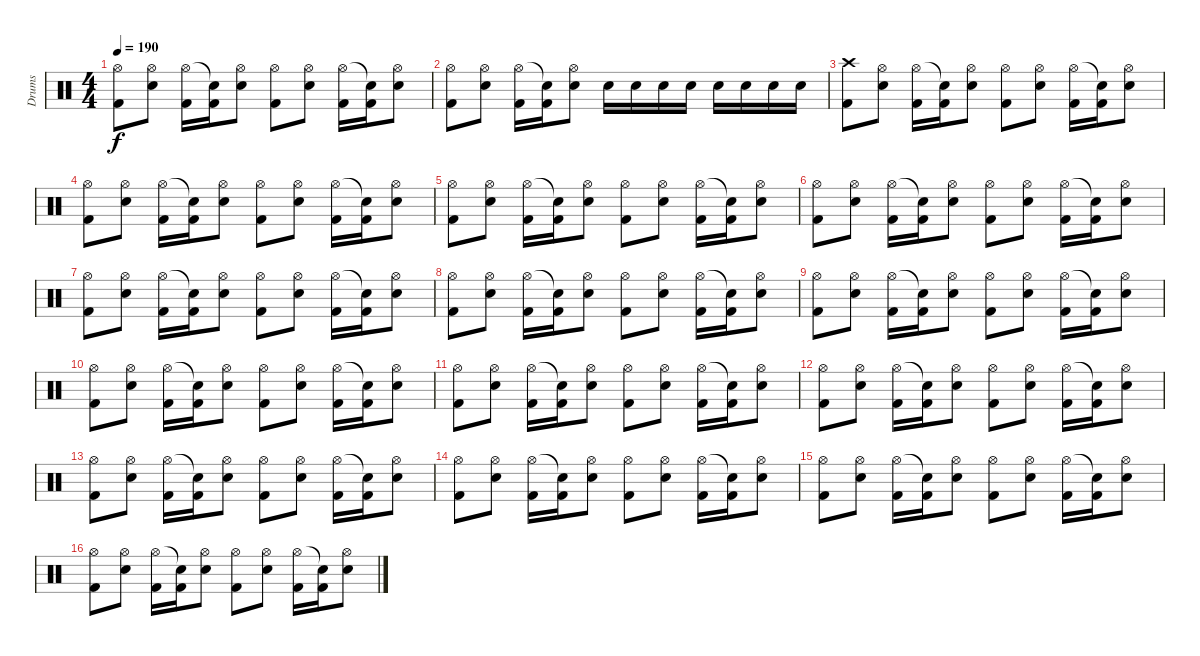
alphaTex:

\track ("Drums" "Drums") {instrument percussion}
\staff {score}
\articulation defaults
\ts (4 4)
\tempo 190
\clef neutral
\ks c
("Hi-Hat (open)" "Kick (hit) 2").8{dy f} ("Hi-Hat (open)" "Snare (hit) 2").8 ("Hi-Hat (open)" "Kick (hit) 2").16 ("Snare (hit)"{t} "Kick (hit) 2").16 ("Hi-Hat (open)" "Snare (hit) 2").8 ("Hi-Hat (open)" "Kick (hit) 2").8 ("Hi-Hat (open)" "Snare (hit) 2").8 ("Hi-Hat (open)" "Kick (hit) 2").16 ("Snare (hit)"{t} "Kick (hit) 2").16 ("Hi-Hat (open)" "Snare (hit) 2").8 |
("Hi-Hat (open)" "Kick (hit) 2").8 ("Hi-Hat (open)" "Snare (hit) 2").8 ("Hi-Hat (open)" "Kick (hit) 2").16 ("Snare (hit)"{t} "Kick (hit) 2").16 ("Hi-Hat (open)" "Snare (hit) 2").8 "Snare (hit) 2".16 "Snare (hit) 2".16 "Snare (hit) 2".16 "Snare (hit) 2".16 "Snare (hit) 2".16 "Snare (hit) 2".16 "Snare (hit) 2".16 "Snare (hit) 2".16 |
("Crash high (hit)" "Kick (hit) 2").8 ("Hi-Hat (open)" "Snare (hit) 2").8 ("Hi-Hat (open)" "Kick (hit) 2").16 ("Snare (hit)"{t} "Kick (hit) 2").16 ("Hi-Hat (open)" "Snare (hit) 2").8 ("Hi-Hat (open)" "Kick (hit) 2").8 ("Hi-Hat (open)" "Snare (hit) 2").8 ("Hi-Hat (open)" "Kick (hit) 2").16 ("Snare (hit)"{t} "Kick (hit) 2").16 ("Hi-Hat (open)" "Snare (hit) 2").8 |
("Hi-Hat (open)" "Kick (hit) 2").8 ("Hi-Hat (open)" "Snare (hit) 2").8 ("Hi-Hat (open)" "Kick (hit) 2").16 ("Snare (hit)"{t} "Kick (hit) 2").16 ("Hi-Hat (open)" "Snare (hit) 2").8 ("Hi-Hat (open)" "Kick (hit) 2").8 ("Hi-Hat (open)" "Snare (hit) 2").8 ("Hi-Hat (open)" "Kick (hit) 2").16 ("Snare (hit)"{t} "Kick (hit) 2").16 ("Hi-Hat (open)" "Snare (hit) 2").8 |
("Hi-Hat (open)" "Kick (hit) 2").8 ("Hi-Hat (open)" "Snare (hit) 2").8 ("Hi-Hat (open)" "Kick (hit) 2").16 ("Snare (hit)"{t} "Kick (hit) 2").16 ("Hi-Hat (open)" "Snare (hit) 2").8 ("Hi-Hat (open)" "Kick (hit) 2").8 ("Hi-Hat (open)" "Snare (hit) 2").8 ("Hi-Hat (open)" "Kick (hit) 2").16 ("Snare (hit)"{t} "Kick (hit) 2").16 ("Hi-Hat (open)" "Snare (hit) 2").8 |
("Hi-Hat (open)" "Kick (hit) 2").8 ("Hi-Hat (open)" "Snare (hit) 2").8 ("Hi-Hat (open)" "Kick (hit) 2").16 ("Snare (hit)"{t} "Kick (hit) 2").16 ("Hi-Hat (open)" "Snare (hit) 2").8 ("Hi-Hat (open)" "Kick (hit) 2").8 ("Hi-Hat (open)" "Snare (hit) 2").8 ("Hi-Hat (open)" "Kick (hit) 2").16 ("Snare (hit)"{t} "Kick (hit) 2").16 ("Hi-Hat (open)" "Snare (hit) 2").8 |
("Hi-Hat (open)" "Kick (hit) 2").8 ("Hi-Hat (open)" "Snare (hit) 2").8 ("Hi-Hat (open)" "Kick (hit) 2").16 ("Snare (hit)"{t} "Kick (hit) 2").16 ("Hi-Hat (open)" "Snare (hit) 2").8 ("Hi-Hat (open)" "Kick (hit) 2").8 ("Hi-Hat (open)" "Snare (hit) 2").8 ("Hi-Hat (open)" "Kick (hit) 2").16 ("Snare (hit)"{t} "Kick (hit) 2").16 ("Hi-Hat (open)" "Snare (hit) 2").8 |
("Hi-Hat (open)" "Kick (hit) 2").8 ("Hi-Hat (open)" "Snare (hit) 2").8 ("Hi-Hat (open)" "Kick (hit) 2").16 ("Snare (hit)"{t} "Kick (hit) 2").16 ("Hi-Hat (open)" "Snare (hit) 2").8 ("Hi-Hat (open)" "Kick (hit) 2").8 ("Hi-Hat (open)" "Snare (hit) 2").8 ("Hi-Hat (open)" "Kick (hit) 2").16 ("Snare (hit)"{t} "Kick (hit) 2").16 ("Hi-Hat (open)" "Snare (hit) 2").8 |
("Hi-Hat (open)" "Kick (hit) 2").8 ("Hi-Hat (open)" "Snare (hit) 2").8 ("Hi-Hat (open)" "Kick (hit) 2").16 ("Snare (hit)"{t} "Kick (hit) 2").16 ("Hi-Hat (open)" "Snare (hit) 2").8 ("Hi-Hat (open)" "Kick (hit) 2").8 ("Hi-Hat (open)" "Snare (hit) 2").8 ("Hi-Hat (open)" "Kick (hit) 2").16 ("Snare (hit)"{t} "Kick (hit) 2").16 ("Hi-Hat (open)" "Snare (hit) 2").8 |
("Hi-Hat (open)" "Kick (hit) 2").8 ("Hi-Hat (open)" "Snare (hit) 2").8 ("Hi-Hat (open)" "Kick (hit) 2").16 ("Snare (hit)"{t} "Kick (hit) 2").16 ("Hi-Hat (open)" "Snare (hit) 2").8 ("Hi-Hat (open)" "Kick (hit) 2").8 ("Hi-Hat (open)" "Snare (hit) 2").8 ("Hi-Hat (open)" "Kick (hit) 2").16 ("Snare (hit)"{t} "Kick (hit) 2").16 ("Hi-Hat (open)" "Snare (hit) 2").8 |
("Hi-Hat (open)" "Kick (hit) 2").8 ("Hi-Hat (open)" "Snare (hit) 2").8 ("Hi-Hat (open)" "Kick (hit) 2").16 ("Snare (hit)"{t} "Kick (hit) 2").16 ("Hi-Hat (open)" "Snare (hit) 2").8 ("Hi-Hat (open)" "Kick (hit) 2").8 ("Hi-Hat (open)" "Snare (hit) 2").8 ("Hi-Hat (open)" "Kick (hit) 2").16 ("Snare (hit)"{t} "Kick (hit) 2").16 ("Hi-Hat (open)" "Snare (hit) 2").8 |
("Hi-Hat (open)" "Kick (hit) 2").8 ("Hi-Hat (open)" "Snare (hit) 2").8 ("Hi-Hat (open)" "Kick (hit) 2").16 ("Snare (hit)"{t} "Kick (hit) 2").16 ("Hi-Hat (open)" "Snare (hit) 2").8 ("Hi-Hat (open)" "Kick (hit) 2").8 ("Hi-Hat (open)" "Snare (hit) 2").8 ("Hi-Hat (open)" "Kick (hit) 2").16 ("Snare (hit)"{t} "Kick (hit) 2").16 ("Hi-Hat (open)" "Snare (hit) 2").8 |
("Hi-Hat (open)" "Kick (hit) 2").8 ("Hi-Hat (open)" "Snare (hit) 2").8 ("Hi-Hat (open)" "Kick (hit) 2").16 ("Snare (hit)"{t} "Kick (hit) 2").16 ("Hi-Hat (open)" "Snare (hit) 2").8 ("Hi-Hat (open)" "Kick (hit) 2").8 ("Hi-Hat (open)" "Snare (hit) 2").8 ("Hi-Hat (open)" "Kick (hit) 2").16 ("Snare (hit)"{t} "Kick (hit) 2").16 ("Hi-Hat (open)" "Snare (hit) 2").8 |
("Hi-Hat (open)" "Kick (hit) 2").8 ("Hi-Hat (open)" "Snare (hit) 2").8 ("Hi-Hat (open)" "Kick (hit) 2").16 ("Snare (hit)"{t} "Kick (hit) 2").16 ("Hi-Hat (open)" "Snare (hit) 2").8 ("Hi-Hat (open)" "Kick (hit) 2").8 ("Hi-Hat (open)" "Snare (hit) 2").8 ("Hi-Hat (open)" "Kick (hit) 2").16 ("Snare (hit)"{t} "Kick (hit) 2").16 ("Hi-Hat (open)" "Snare (hit) 2").8 |
("Hi-Hat (open)" "Kick (hit) 2").8 ("Hi-Hat (open)" "Snare (hit) 2").8 ("Hi-Hat (open)" "Kick (hit) 2").16 ("Snare (hit)"{t} "Kick (hit) 2").16 ("Hi-Hat (open)" "Snare (hit) 2").8 ("Hi-Hat (open)" "Kick (hit) 2").8 ("Hi-Hat (open)" "Snare (hit) 2").8 ("Hi-Hat (open)" "Kick (hit) 2").16 ("Snare (hit)"{t} "Kick (hit) 2").16 ("Hi-Hat (open)" "Snare (hit) 2").8 |
("Hi-Hat (open)" "Kick (hit) 2").8 ("Hi-Hat (open)" "Snare (hit) 2").8 ("Hi-Hat (open)" "Kick (hit) 2").16 ("Snare (hit)"{t} "Kick (hit) 2").16 ("Hi-Hat (open)" "Snare (hit) 2").8 ("Hi-Hat (open)" "Kick (hit) 2").8 ("Hi-Hat (open)" "Snare (hit) 2").8 ("Hi-Hat (open)" "Kick (hit) 2").16 ("Snare (hit)"{t} "Kick (hit) 2").16 ("Hi-Hat (open)" "Snare (hit) 2").8
